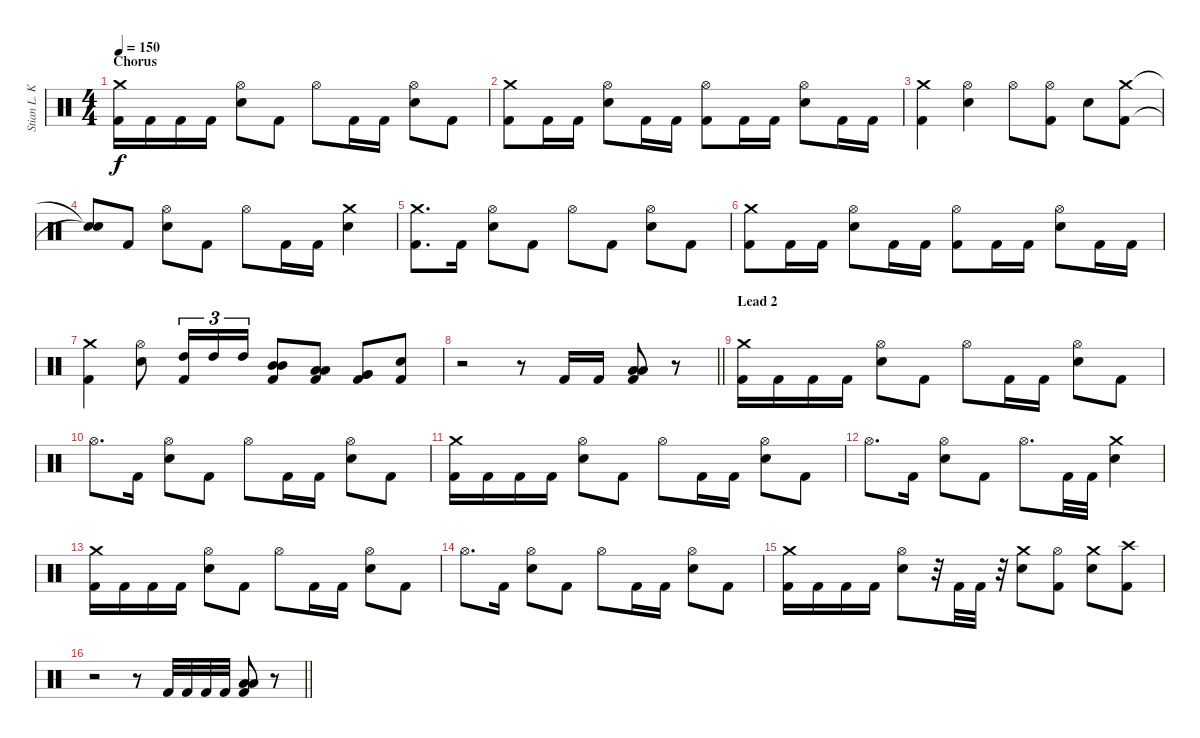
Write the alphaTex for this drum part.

\track ("Stian L. Kristoffersen" "Stian L. K") {instrument percussion}
\staff {score}
\articulation defaults
\ts (4 4)
\section ("" "Chorus")
\tempo 150
\clef neutral
\ks c
("Crash medium (hit)" "Kick (hit) 2").16{dy f} "Kick (hit) 2".16 "Kick (hit) 2".16 "Kick (hit) 2".16 ("Hi-Hat (open)" "Electric Snare (hit)").8 "Kick (hit) 2".8 "Hi-Hat (open)".8 "Kick (hit) 2".16 "Kick (hit) 2".16 ("Hi-Hat (open)" "Electric Snare (hit)").8 "Kick (hit) 2".8 |
("Crash medium (hit)" "Kick (hit) 2").8 "Kick (hit) 2".16 "Kick (hit) 2".16 ("Hi-Hat (open)" "Electric Snare (hit)").8 "Kick (hit) 2".16 "Kick (hit) 2".16 ("Hi-Hat (open)" "Kick (hit) 2").8 "Kick (hit) 2".16 "Kick (hit) 2".16 ("Hi-Hat (open)" "Electric Snare (hit)").8 "Kick (hit) 2".16 "Kick (hit) 2".16 |
("Crash medium (hit)" "Kick (hit) 2").4 ("Hi-Hat (open)" "Electric Snare (hit)").4 "Hi-Hat (open)".8 ("Hi-Hat (open)" "Kick (hit) 2").8 "Electric Snare (hit)".8 ("Crash medium (hit)" "Kick (hit) 2").8 |
("Snare (hit)"{t} "Snare (hit)"{t}).8 "Kick (hit) 2".8 ("Hi-Hat (open)" "Electric Snare (hit)").8 "Kick (hit) 2".8 "Hi-Hat (open)".8 "Kick (hit) 2".16 "Kick (hit) 2".16 ("Crash medium (hit)" "Electric Snare (hit)").4 |
("Crash medium (hit)" "Kick (hit) 2").8{d} "Kick (hit) 2".16 ("Hi-Hat (open)" "Electric Snare (hit)").8 "Kick (hit) 2".8 "Hi-Hat (open)".8 "Kick (hit) 2".8 ("Hi-Hat (open)" "Electric Snare (hit)").8 "Kick (hit) 2".8 |
("Crash medium (hit)" "Kick (hit) 2").8 "Kick (hit) 2".16 "Kick (hit) 2".16 ("Hi-Hat (open)" "Electric Snare (hit)").8 "Kick (hit) 2".16 "Kick (hit) 2".16 ("Hi-Hat (open)" "Kick (hit) 2").8 "Kick (hit) 2".16 "Kick (hit) 2".16 ("Hi-Hat (open)" "Electric Snare (hit)").8 "Kick (hit) 2".16 "Kick (hit) 2".16 |
("Crash medium (hit)" "Kick (hit) 2").4 ("Hi-Hat (open)" "Electric Snare (hit)").8 ("High Tom (hit)" "Kick (hit) 2").16{tu (3 2)} "High Tom (hit)".16{tu (3 2)} "High Tom (hit)".16{tu (3 2)} ("Mid Tom (hit)" "Mid Tom (hit)" "Kick (hit) 2").8 ("Low Tom (hit)" "Low Tom (hit)" "Kick (hit) 2").8 ("Very Low Tom (hit)" "Very Low Tom (hit)" "Kick (hit) 2").8 ("Electric Snare (hit)" "Kick (hit) 2").8 |
\barLineRight lightlight
r.2 r.8 "Kick (hit) 2".16 "Kick (hit) 2".16 ("Low Tom (hit)" "Low Tom (hit)" "Kick (hit) 2").8 r.8 |
\section ("" "Lead 2")
("Crash medium (hit)" "Kick (hit) 2").16 "Kick (hit) 2".16 "Kick (hit) 2".16 "Kick (hit) 2".16 ("Hi-Hat (open)" "Electric Snare (hit)").8 "Kick (hit) 2".8 "Hi-Hat (open)".8 "Kick (hit) 2".16 "Kick (hit) 2".16 ("Hi-Hat (open)" "Electric Snare (hit)").8 "Kick (hit) 2".8 |
"Hi-Hat (open)".8{d} "Kick (hit) 2".16 ("Hi-Hat (open)" "Electric Snare (hit)").8 "Kick (hit) 2".8 "Hi-Hat (open)".8 "Kick (hit) 2".16 "Kick (hit) 2".16 ("Hi-Hat (open)" "Electric Snare (hit)").8 "Kick (hit) 2".8 |
("Crash medium (hit)" "Kick (hit) 2").16 "Kick (hit) 2".16 "Kick (hit) 2".16 "Kick (hit) 2".16 ("Hi-Hat (open)" "Electric Snare (hit)").8 "Kick (hit) 2".8 "Hi-Hat (open)".8 "Kick (hit) 2".16 "Kick (hit) 2".16 ("Hi-Hat (open)" "Electric Snare (hit)").8 "Kick (hit) 2".8 |
"Hi-Hat (open)".8{d} "Kick (hit) 2".16 ("Hi-Hat (open)" "Electric Snare (hit)").8 "Kick (hit) 2".8 "Hi-Hat (open)".8{d} "Kick (hit) 2".32 "Kick (hit) 2".32 ("Crash medium (hit)" "Electric Snare (hit)").4 |
("Crash medium (hit)" "Kick (hit) 2").16 "Kick (hit) 2".16 "Kick (hit) 2".16 "Kick (hit) 2".16 ("Hi-Hat (open)" "Electric Snare (hit)").8 "Kick (hit) 2".8 "Hi-Hat (open)".8 "Kick (hit) 2".16 "Kick (hit) 2".16 ("Hi-Hat (open)" "Electric Snare (hit)").8 "Kick (hit) 2".8 |
"Hi-Hat (open)".8{d} "Kick (hit) 2".16 ("Hi-Hat (open)" "Electric Snare (hit)").8 "Kick (hit) 2".8 "Hi-Hat (open)".8 "Kick (hit) 2".16 "Kick (hit) 2".16 ("Hi-Hat (open)" "Electric Snare (hit)").8 "Kick (hit) 2".8 |
("Crash medium (hit)" "Kick (hit) 2").16 "Kick (hit) 2".16 "Kick (hit) 2".16 "Kick (hit) 2".16 ("Hi-Hat (open)" "Electric Snare (hit)").8 r.32 "Kick (hit) 2".32 "Kick (hit) 2".32 r.32 ("Crash medium (hit)" "Electric Snare (hit)").8 ("Hi-Hat (open)" "Kick (hit) 2").8 ("Crash medium (hit)" "Electric Snare (hit)").8 ("Crash high (hit)" "Kick (hit) 2").8 |
\barLineRight lightlight
r.2 r.8 "Kick (hit) 2".32 "Kick (hit) 2".32 "Kick (hit) 2".32 "Kick (hit) 2".32 ("Low Tom (hit)" "Low Tom (hit)" "Kick (hit) 2").8 r.8
